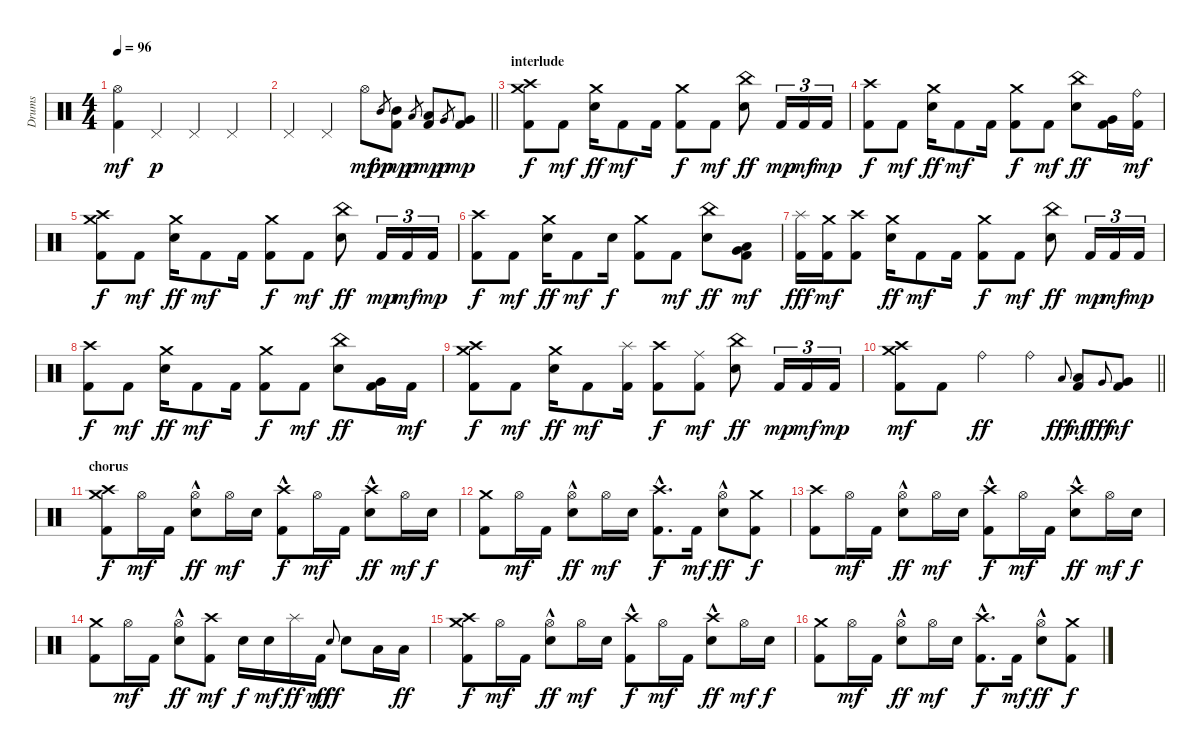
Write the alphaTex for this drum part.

\track ("Drums" "Drums") {instrument percussion}
\staff {score}
\articulation defaults
\ts (4 4)
\tempo 96
\clef neutral
\ks c
("Hi-Hat (open)" "Kick (hit) 2").4{dy mf} "Pedal Hi-Hat (hit)".4{dy p} "Pedal Hi-Hat (hit)".4 "Pedal Hi-Hat (hit)".4 |
\barLineRight lightlight "Pedal Hi-Hat (hit)".4 "Pedal Hi-Hat (hit)".4 "Hi-Hat (open)".8{dy mf} "Mid Tom (hit)".8{gr dy pp}
("Mid Tom (hit)" "Kick (hit) 2").8{dy mp} "Low Tom (hit)".8{gr dy p} ("Low Tom (hit)" "Kick (hit) 2").8{dy mp} "Very Low Tom (hit)".8{gr dy p} ("Very Low Tom (hit)" "Kick (hit) 2").8{dy mp} |
\section ("" "interlude")
("Crash medium (hit)" "Crash high (hit)" "Kick (hit) 2").8{dy f} "Kick (hit) 2".8{dy mf} ("Crash medium (hit)" "Electric Snare (hit)").16{dy ff} "Kick (hit) 2".8{dy mf} "Kick (hit) 2".16 ("Crash medium (hit)" "Kick (hit) 2").8{dy f} "Kick (hit) 2".8{dy mf} ("China (hit)" "Electric Snare (hit)").8{dy ff} "Kick (hit) 2".16{tu (3 2) dy mp} "Kick (hit) 2".16{tu (3 2) dy mf} "Kick (hit) 2".16{tu (3 2) dy mp} |
("Crash high (hit)" "Kick (hit) 2").8{dy f} "Kick (hit) 2".8{dy mf} ("Crash medium (hit)" "Electric Snare (hit)").16{dy ff} "Kick (hit) 2".8{dy mf} "Kick (hit) 2".16 ("Crash medium (hit)" "Kick (hit) 2").8{dy f} "Kick (hit) 2".8{dy mf} ("China (hit)" "Electric Snare (hit)").8{dy ff} ("Very Low Tom (hit)" "Kick (hit) 2").16 ("Ride (bell)" "Kick (hit) 2").16{dy mf} |
("Crash medium (hit)" "Crash high (hit)" "Kick (hit) 2").8{dy f} "Kick (hit) 2".8{dy mf} ("Crash medium (hit)" "Electric Snare (hit)").16{dy ff} "Kick (hit) 2".8{dy mf} "Kick (hit) 2".16 ("Crash medium (hit)" "Kick (hit) 2").8{dy f} "Kick (hit) 2".8{dy mf} ("China (hit)" "Electric Snare (hit)").8{dy ff} "Kick (hit) 2".16{tu (3 2) dy mp} "Kick (hit) 2".16{tu (3 2) dy mf} "Kick (hit) 2".16{tu (3 2) dy mp} |
("Crash high (hit)" "Kick (hit) 2").8{dy f} "Kick (hit) 2".8{dy mf} ("Crash medium (hit)" "Electric Snare (hit)").16{dy ff} "Kick (hit) 2".8{dy mf} "Electric Snare (hit)".16{dy f} ("Crash medium (hit)" "Kick (hit) 2").8 "Kick (hit) 2".8{dy mf} ("China (hit)" "Electric Snare (hit)").8{dy ff} ("Very Low Tom (hit)" "Low Tom (hit)" "Kick (hit) 2").8{dy mf} |
("Splash (hit)" "Kick (hit) 2").16{dy fff} ("Crash medium (hit)" "Kick (hit) 2").16{dy mf} ("Crash high (hit)" "Kick (hit) 2").8 ("Crash medium (hit)" "Electric Snare (hit)").16{dy ff} "Kick (hit) 2".8{dy mf} "Kick (hit) 2".16 ("Crash medium (hit)" "Kick (hit) 2").8{dy f} "Kick (hit) 2".8{dy mf} ("China (hit)" "Electric Snare (hit)").8{dy ff} "Kick (hit) 2".16{tu (3 2) dy mp} "Kick (hit) 2".16{tu (3 2) dy mf} "Kick (hit) 2".16{tu (3 2) dy mp} |
("Crash high (hit)" "Kick (hit) 2").8{dy f} "Kick (hit) 2".8{dy mf} ("Crash medium (hit)" "Electric Snare (hit)").16{dy ff} "Kick (hit) 2".8{dy mf} "Kick (hit) 2".16 ("Crash medium (hit)" "Kick (hit) 2").8{dy f} "Kick (hit) 2".8{dy mf} ("China (hit)" "Electric Snare (hit)").8{dy ff} ("Very Low Tom (hit)" "Kick (hit) 2").16 "Kick (hit) 2".16{dy mf} |
("Crash medium (hit)" "Crash high (hit)" "Kick (hit) 2").8{dy f} "Kick (hit) 2".8{dy mf} ("Crash medium (hit)" "Electric Snare (hit)").16{dy ff} "Kick (hit) 2".8{dy mf} ("Splash (hit)" "Kick (hit) 2").16 ("Crash high (hit)" "Kick (hit) 2").8{dy f} ("Ride (middle)" "Kick (hit) 2").8{dy mf} ("China (hit)" "Electric Snare (hit)").8{dy ff} "Kick (hit) 2".16{tu (3 2) dy mp} "Kick (hit) 2".16{tu (3 2) dy mf} "Kick (hit) 2".16{tu (3 2) dy mp} |
\barLineRight lightlight
("Crash medium (hit)" "Crash high (hit)" "Kick (hit) 2").8{dy mf} "Kick (hit) 2".8 "Ride (bell)".4{dy ff} "Ride (bell)".4 "Low Tom (hit)".8{gr onbeat dy fff} ("Low Tom (hit)" "Kick (hit) 2").8{dy mf} "Very Low Tom (hit)".8{gr onbeat dy fff} ("Very Low Tom (hit)" "Kick (hit) 2").8{dy mf} |
\section ("" "chorus")
("Crash medium (hit)" "Crash high (hit)" "Kick (hit) 2").8{dy f} "Hi-Hat (open)".16{dy mf} "Kick (hit) 2".16 ("Hi-Hat (open)"{hac} "Electric Snare (hit)").8{dy ff} "Hi-Hat (open)".16{dy mf} "Electric Snare (hit)".16 ("Crash high (hit)"{hac} "Kick (hit) 2").8{dy f} "Hi-Hat (open)".16{dy mf} "Kick (hit) 2".16 ("Crash high (hit)"{hac} "Electric Snare (hit)").8{dy ff} "Hi-Hat (open)".16{dy mf} "Electric Snare (hit)".16{dy f} |
("Crash medium (hit)" "Kick (hit) 2").8 "Hi-Hat (open)".16{dy mf} "Kick (hit) 2".16 ("Hi-Hat (open)"{hac} "Electric Snare (hit)").8{dy ff} "Hi-Hat (open)".16{dy mf} "Electric Snare (hit)".16 ("Crash high (hit)"{hac} "Kick (hit) 2").8{d dy f} "Kick (hit) 2".16{dy mf} ("Hi-Hat (open)"{hac} "Electric Snare (hit)").8{dy ff} ("Crash medium (hit)" "Kick (hit) 2").8{dy f} |
("Crash high (hit)" "Kick (hit) 2").8 "Hi-Hat (open)".16{dy mf} "Kick (hit) 2".16 ("Hi-Hat (open)"{hac} "Electric Snare (hit)").8{dy ff} "Hi-Hat (open)".16{dy mf} "Electric Snare (hit)".16 ("Crash high (hit)"{hac} "Kick (hit) 2").8{dy f} "Hi-Hat (open)".16{dy mf} "Kick (hit) 2".16 ("Crash high (hit)"{hac} "Electric Snare (hit)").8{dy ff} "Hi-Hat (open)".16{dy mf} "Electric Snare (hit)".16{dy f} |
("Crash medium (hit)" "Kick (hit) 2").8 "Hi-Hat (open)".16{dy mf} "Kick (hit) 2".16 ("Hi-Hat (open)"{hac} "Electric Snare (hit)").8{dy ff} ("Crash high (hit)" "Kick (hit) 2").8{dy mf} "Electric Snare (hit)".16{dy f} "Electric Snare (hit)".16{dy mf} "Splash (hit)".16{dy ff} "Kick (hit) 2".16{dy mf} "Electric Snare (hit)".8{gr onbeat dy fff} "Electric Snare (hit)".8 "Low Tom (hit)".16 "Low Tom (hit)".16{dy ff} |
("Crash medium (hit)" "Crash high (hit)" "Kick (hit) 2").8{dy f} "Hi-Hat (open)".16{dy mf} "Kick (hit) 2".16 ("Hi-Hat (open)"{hac} "Electric Snare (hit)").8{dy ff} "Hi-Hat (open)".16{dy mf} "Electric Snare (hit)".16 ("Crash high (hit)"{hac} "Kick (hit) 2").8{dy f} "Hi-Hat (open)".16{dy mf} "Kick (hit) 2".16 ("Crash high (hit)"{hac} "Electric Snare (hit)").8{dy ff} "Hi-Hat (open)".16{dy mf} "Electric Snare (hit)".16{dy f} |
("Crash medium (hit)" "Kick (hit) 2").8 "Hi-Hat (open)".16{dy mf} "Kick (hit) 2".16 ("Hi-Hat (open)"{hac} "Electric Snare (hit)").8{dy ff} "Hi-Hat (open)".16{dy mf} "Electric Snare (hit)".16 ("Crash high (hit)"{hac} "Kick (hit) 2").8{d dy f} "Kick (hit) 2".16{dy mf} ("Hi-Hat (open)"{hac} "Electric Snare (hit)").8{dy ff} ("Crash medium (hit)" "Kick (hit) 2").8{dy f}
